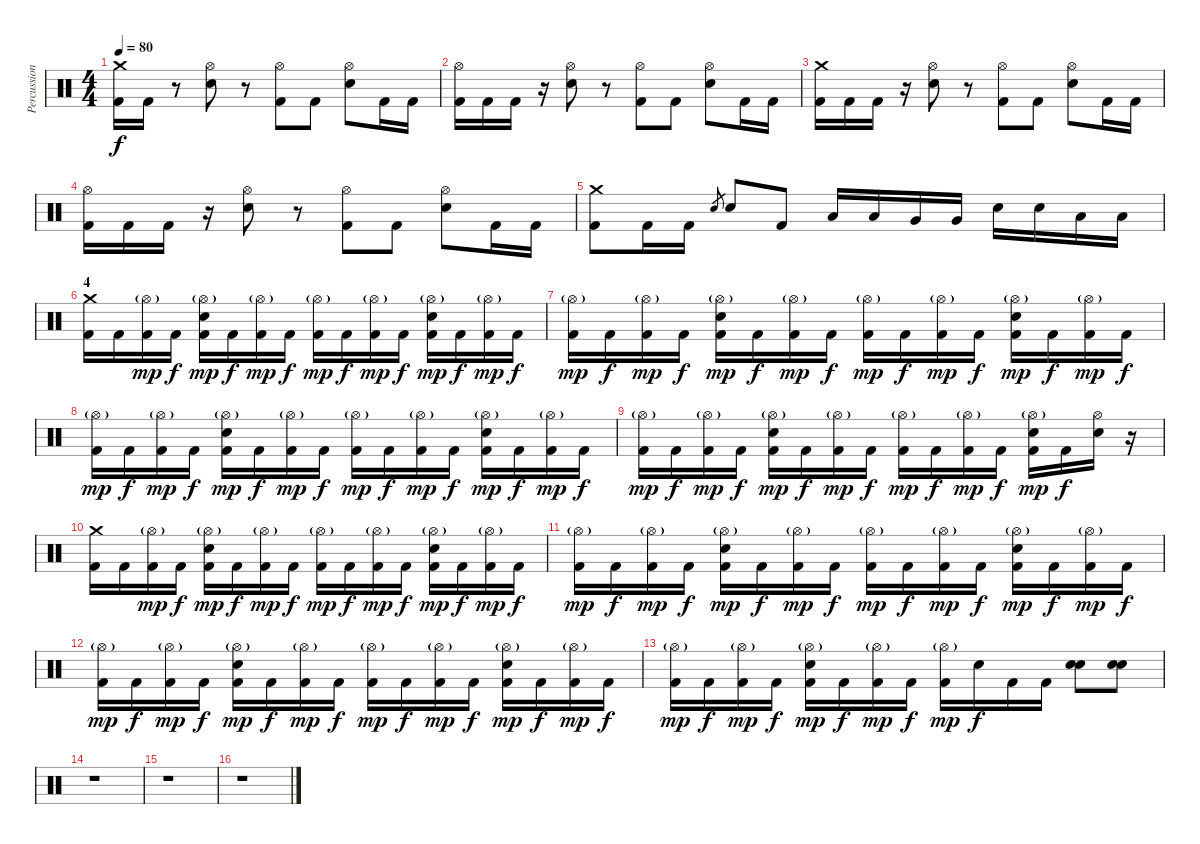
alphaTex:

\track ("Percussions" "Percussion") {instrument percussion}
\staff {score}
\articulation defaults
\ts (4 4)
\tempo 80
\clef neutral
\ks c
("Crash medium (hit)" "Kick (hit) 2").16{dy f} "Kick (hit) 2".16 r.8 ("Hi-Hat (open)" "Electric Snare (hit)").8 r.8 ("Hi-Hat (open)" "Kick (hit) 2").8 "Kick (hit) 2".8 ("Hi-Hat (open)" "Electric Snare (hit)").8 "Kick (hit) 2".16 "Kick (hit) 2".16 |
("Hi-Hat (open)" "Kick (hit) 2").16 "Kick (hit) 2".16 "Kick (hit) 2".16 r.16 ("Hi-Hat (open)" "Electric Snare (hit)").8 r.8 ("Hi-Hat (open)" "Kick (hit) 2").8 "Kick (hit) 2".8 ("Hi-Hat (open)" "Electric Snare (hit)").8 "Kick (hit) 2".16 "Kick (hit) 2".16 |
("Crash medium (hit)" "Kick (hit) 2").16 "Kick (hit) 2".16 "Kick (hit) 2".16 r.16 ("Hi-Hat (open)" "Electric Snare (hit)").8 r.8 ("Hi-Hat (open)" "Kick (hit) 2").8 "Kick (hit) 2".8 ("Hi-Hat (open)" "Electric Snare (hit)").8 "Kick (hit) 2".16 "Kick (hit) 2".16 |
("Hi-Hat (open)" "Kick (hit) 2").16 "Kick (hit) 2".16 "Kick (hit) 2".16 r.16 ("Hi-Hat (open)" "Electric Snare (hit)").8 r.8 ("Hi-Hat (open)" "Kick (hit) 2").8 "Kick (hit) 2".8 ("Hi-Hat (open)" "Electric Snare (hit)").8 "Kick (hit) 2".16 "Kick (hit) 2".16 |
("Crash medium (hit)" "Kick (hit) 2").8 "Kick (hit) 2".16 "Kick (hit) 2".16 "Electric Snare (hit)".8{gr} "Electric Snare (hit)".8 "Kick (hit) 2".8 "Low Tom (hit)".16 "Low Tom (hit)".16 "Very Low Tom (hit)".16 "Very Low Tom (hit)".16 "Electric Snare (hit)".16 "Electric Snare (hit)".16 "Low Floor Tom (hit)".16 "Low Floor Tom (hit)".16 |
\section ("" "4")
("Crash medium (hit)" "Kick (hit) 2").16 "Kick (hit) 2".16 ("Hi-Hat (open)"{g} "Kick (hit) 2").16{dy mp} "Kick (hit) 2".16{dy f} ("Hi-Hat (open)"{g} "Electric Snare (hit)" "Kick (hit) 2").16{dy mp} "Kick (hit) 2".16{dy f} ("Hi-Hat (open)"{g} "Kick (hit) 2").16{dy mp} "Kick (hit) 2".16{dy f} ("Hi-Hat (open)"{g} "Kick (hit) 2").16{dy mp} "Kick (hit) 2".16{dy f} ("Hi-Hat (open)"{g} "Kick (hit) 2").16{dy mp} "Kick (hit) 2".16{dy f} ("Hi-Hat (open)"{g} "Electric Snare (hit)" "Kick (hit) 2").16{dy mp} "Kick (hit) 2".16{dy f} ("Hi-Hat (open)"{g} "Kick (hit) 2").16{dy mp} "Kick (hit) 2".16{dy f} |
("Hi-Hat (open)"{g} "Kick (hit) 2").16{dy mp} "Kick (hit) 2".16{dy f} ("Hi-Hat (open)"{g} "Kick (hit) 2").16{dy mp} "Kick (hit) 2".16{dy f} ("Hi-Hat (open)"{g} "Electric Snare (hit)" "Kick (hit) 2").16{dy mp} "Kick (hit) 2".16{dy f} ("Hi-Hat (open)"{g} "Kick (hit) 2").16{dy mp} "Kick (hit) 2".16{dy f} ("Hi-Hat (open)"{g} "Kick (hit) 2").16{dy mp} "Kick (hit) 2".16{dy f} ("Hi-Hat (open)"{g} "Kick (hit) 2").16{dy mp} "Kick (hit) 2".16{dy f} ("Hi-Hat (open)"{g} "Electric Snare (hit)" "Kick (hit) 2").16{dy mp} "Kick (hit) 2".16{dy f} ("Hi-Hat (open)"{g} "Kick (hit) 2").16{dy mp} "Kick (hit) 2".16{dy f} |
("Hi-Hat (open)"{g} "Kick (hit) 2").16{dy mp} "Kick (hit) 2".16{dy f} ("Hi-Hat (open)"{g} "Kick (hit) 2").16{dy mp} "Kick (hit) 2".16{dy f} ("Hi-Hat (open)"{g} "Electric Snare (hit)" "Kick (hit) 2").16{dy mp} "Kick (hit) 2".16{dy f} ("Hi-Hat (open)"{g} "Kick (hit) 2").16{dy mp} "Kick (hit) 2".16{dy f} ("Hi-Hat (open)"{g} "Kick (hit) 2").16{dy mp} "Kick (hit) 2".16{dy f} ("Hi-Hat (open)"{g} "Kick (hit) 2").16{dy mp} "Kick (hit) 2".16{dy f} ("Hi-Hat (open)"{g} "Electric Snare (hit)" "Kick (hit) 2").16{dy mp} "Kick (hit) 2".16{dy f} ("Hi-Hat (open)"{g} "Kick (hit) 2").16{dy mp} "Kick (hit) 2".16{dy f} |
("Hi-Hat (open)"{g} "Kick (hit) 2").16{dy mp} "Kick (hit) 2".16{dy f} ("Hi-Hat (open)"{g} "Kick (hit) 2").16{dy mp} "Kick (hit) 2".16{dy f} ("Hi-Hat (open)"{g} "Electric Snare (hit)" "Kick (hit) 2").16{dy mp} "Kick (hit) 2".16{dy f} ("Hi-Hat (open)"{g} "Kick (hit) 2").16{dy mp} "Kick (hit) 2".16{dy f} ("Hi-Hat (open)"{g} "Kick (hit) 2").16{dy mp} "Kick (hit) 2".16{dy f} ("Hi-Hat (open)"{g} "Kick (hit) 2").16{dy mp} "Kick (hit) 2".16{dy f} ("Hi-Hat (open)"{g} "Electric Snare (hit)" "Kick (hit) 2").16{dy mp} "Kick (hit) 2".16{dy f} ("Hi-Hat (open)" "Electric Snare (hit)").16 r.16 |
("Crash medium (hit)" "Kick (hit) 2").16 "Kick (hit) 2".16 ("Hi-Hat (open)"{g} "Kick (hit) 2").16{dy mp} "Kick (hit) 2".16{dy f} ("Hi-Hat (open)"{g} "Electric Snare (hit)" "Kick (hit) 2").16{dy mp} "Kick (hit) 2".16{dy f} ("Hi-Hat (open)"{g} "Kick (hit) 2").16{dy mp} "Kick (hit) 2".16{dy f} ("Hi-Hat (open)"{g} "Kick (hit) 2").16{dy mp} "Kick (hit) 2".16{dy f} ("Hi-Hat (open)"{g} "Kick (hit) 2").16{dy mp} "Kick (hit) 2".16{dy f} ("Hi-Hat (open)"{g} "Electric Snare (hit)" "Kick (hit) 2").16{dy mp} "Kick (hit) 2".16{dy f} ("Hi-Hat (open)"{g} "Kick (hit) 2").16{dy mp} "Kick (hit) 2".16{dy f} |
("Hi-Hat (open)"{g} "Kick (hit) 2").16{dy mp} "Kick (hit) 2".16{dy f} ("Hi-Hat (open)"{g} "Kick (hit) 2").16{dy mp} "Kick (hit) 2".16{dy f} ("Hi-Hat (open)"{g} "Electric Snare (hit)" "Kick (hit) 2").16{dy mp} "Kick (hit) 2".16{dy f} ("Hi-Hat (open)"{g} "Kick (hit) 2").16{dy mp} "Kick (hit) 2".16{dy f} ("Hi-Hat (open)"{g} "Kick (hit) 2").16{dy mp} "Kick (hit) 2".16{dy f} ("Hi-Hat (open)"{g} "Kick (hit) 2").16{dy mp} "Kick (hit) 2".16{dy f} ("Hi-Hat (open)"{g} "Electric Snare (hit)" "Kick (hit) 2").16{dy mp} "Kick (hit) 2".16{dy f} ("Hi-Hat (open)"{g} "Kick (hit) 2").16{dy mp} "Kick (hit) 2".16{dy f} |
("Hi-Hat (open)"{g} "Kick (hit) 2").16{dy mp} "Kick (hit) 2".16{dy f} ("Hi-Hat (open)"{g} "Kick (hit) 2").16{dy mp} "Kick (hit) 2".16{dy f} ("Hi-Hat (open)"{g} "Electric Snare (hit)" "Kick (hit) 2").16{dy mp} "Kick (hit) 2".16{dy f} ("Hi-Hat (open)"{g} "Kick (hit) 2").16{dy mp} "Kick (hit) 2".16{dy f} ("Hi-Hat (open)"{g} "Kick (hit) 2").16{dy mp} "Kick (hit) 2".16{dy f} ("Hi-Hat (open)"{g} "Kick (hit) 2").16{dy mp} "Kick (hit) 2".16{dy f} ("Hi-Hat (open)"{g} "Electric Snare (hit)" "Kick (hit) 2").16{dy mp} "Kick (hit) 2".16{dy f} ("Hi-Hat (open)"{g} "Kick (hit) 2").16{dy mp} "Kick (hit) 2".16{dy f} |
("Hi-Hat (open)"{g} "Kick (hit) 2").16{dy mp} "Kick (hit) 2".16{dy f} ("Hi-Hat (open)"{g} "Kick (hit) 2").16{dy mp} "Kick (hit) 2".16{dy f} ("Hi-Hat (open)"{g} "Electric Snare (hit)" "Kick (hit) 2").16{dy mp} "Kick (hit) 2".16{dy f} ("Hi-Hat (open)"{g} "Kick (hit) 2").16{dy mp} "Kick (hit) 2".16{dy f} ("Hi-Hat (open)"{g} "Kick (hit) 2").16{dy mp} "Electric Snare (hit)".16{dy f} "Kick (hit) 2".16 "Kick (hit) 2".16 ("Electric Snare (hit)" "Electric Snare (hit)").8 ("Electric Snare (hit)" "Electric Snare (hit)").8 |
r.1 |
r.1 |
r.1
